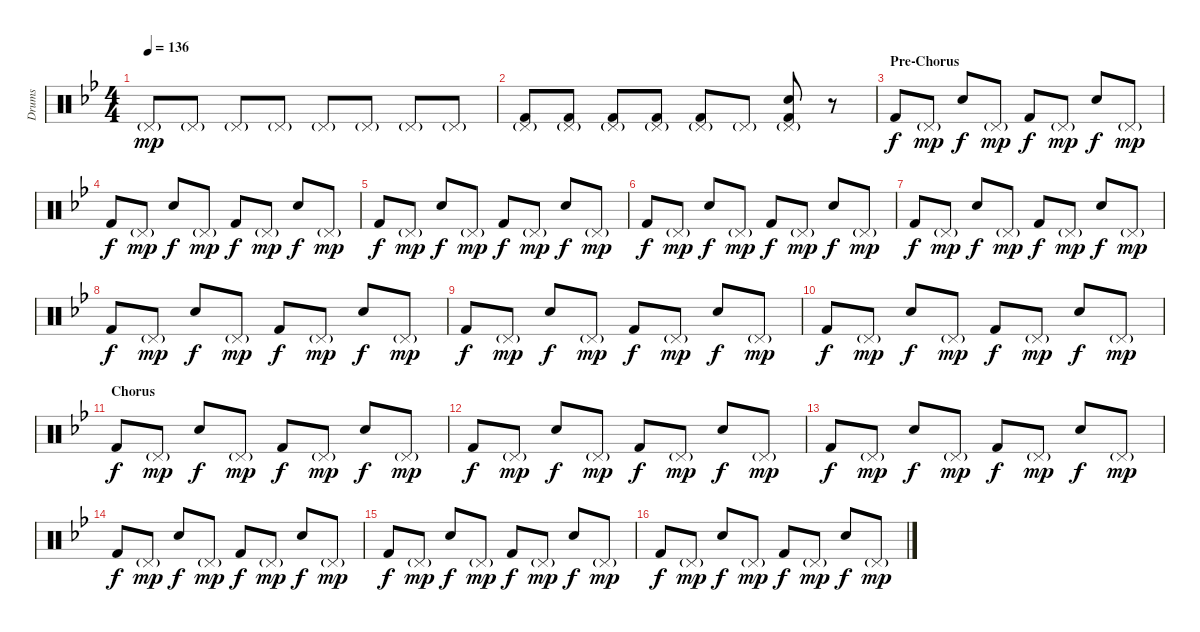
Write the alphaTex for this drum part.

\track ("Drums" "Drums") {instrument percussion}
\staff {score}
\articulation defaults
\ts (4 4)
\tempo 136
\clef neutral
\ks gminor "Pedal Hi-Hat (hit)"{g}.8{dy mp} "Pedal Hi-Hat (hit)"{g}.8 "Pedal Hi-Hat (hit)"{g}.8 "Pedal Hi-Hat (hit)"{g}.8 "Pedal Hi-Hat (hit)"{g}.8 "Pedal Hi-Hat (hit)"{g}.8 "Pedal Hi-Hat (hit)"{g}.8 "Pedal Hi-Hat (hit)"{g}.8
|
("Pedal Hi-Hat (hit)"{g} "Kick (hit) 2").8 ("Pedal Hi-Hat (hit)"{g} "Kick (hit) 2").8 ("Pedal Hi-Hat (hit)"{g} "Kick (hit) 2").8 ("Pedal Hi-Hat (hit)"{g} "Kick (hit) 2").8 ("Pedal Hi-Hat (hit)"{g} "Kick (hit) 2").8 "Pedal Hi-Hat (hit)"{g}.8 ("Pedal Hi-Hat (hit)"{g} "Snare (hit) 2" "Kick (hit) 2").8 r.8 |
\section ("" "Pre-Chorus")
"Kick (hit) 2".8{dy f} "Pedal Hi-Hat (hit)"{g}.8{dy mp} "Hand Clap (hit)".8{dy f} "Pedal Hi-Hat (hit)"{g}.8{dy mp} "Kick (hit) 2".8{dy f} "Pedal Hi-Hat (hit)"{g}.8{dy mp} "Hand Clap (hit)".8{dy f} "Pedal Hi-Hat (hit)"{g}.8{dy mp} |
"Kick (hit) 2".8{dy f} "Pedal Hi-Hat (hit)"{g}.8{dy mp} "Hand Clap (hit)".8{dy f} "Pedal Hi-Hat (hit)"{g}.8{dy mp} "Kick (hit) 2".8{dy f} "Pedal Hi-Hat (hit)"{g}.8{dy mp} "Hand Clap (hit)".8{dy f} "Pedal Hi-Hat (hit)"{g}.8{dy mp} |
"Kick (hit) 2".8{dy f} "Pedal Hi-Hat (hit)"{g}.8{dy mp} "Hand Clap (hit)".8{dy f} "Pedal Hi-Hat (hit)"{g}.8{dy mp} "Kick (hit) 2".8{dy f} "Pedal Hi-Hat (hit)"{g}.8{dy mp} "Hand Clap (hit)".8{dy f} "Pedal Hi-Hat (hit)"{g}.8{dy mp} |
"Kick (hit) 2".8{dy f} "Pedal Hi-Hat (hit)"{g}.8{dy mp} "Hand Clap (hit)".8{dy f} "Pedal Hi-Hat (hit)"{g}.8{dy mp} "Kick (hit) 2".8{dy f} "Pedal Hi-Hat (hit)"{g}.8{dy mp} "Hand Clap (hit)".8{dy f} "Pedal Hi-Hat (hit)"{g}.8{dy mp} |
"Kick (hit) 2".8{dy f} "Pedal Hi-Hat (hit)"{g}.8{dy mp} "Hand Clap (hit)".8{dy f} "Pedal Hi-Hat (hit)"{g}.8{dy mp} "Kick (hit) 2".8{dy f} "Pedal Hi-Hat (hit)"{g}.8{dy mp} "Hand Clap (hit)".8{dy f} "Pedal Hi-Hat (hit)"{g}.8{dy mp} |
"Kick (hit) 2".8{dy f} "Pedal Hi-Hat (hit)"{g}.8{dy mp} "Hand Clap (hit)".8{dy f} "Pedal Hi-Hat (hit)"{g}.8{dy mp} "Kick (hit) 2".8{dy f} "Pedal Hi-Hat (hit)"{g}.8{dy mp} "Hand Clap (hit)".8{dy f} "Pedal Hi-Hat (hit)"{g}.8{dy mp} |
"Kick (hit) 2".8{dy f} "Pedal Hi-Hat (hit)"{g}.8{dy mp} "Hand Clap (hit)".8{dy f} "Pedal Hi-Hat (hit)"{g}.8{dy mp} "Kick (hit) 2".8{dy f} "Pedal Hi-Hat (hit)"{g}.8{dy mp} "Hand Clap (hit)".8{dy f} "Pedal Hi-Hat (hit)"{g}.8{dy mp} |
"Kick (hit) 2".8{dy f} "Pedal Hi-Hat (hit)"{g}.8{dy mp} "Hand Clap (hit)".8{dy f} "Pedal Hi-Hat (hit)"{g}.8{dy mp} "Kick (hit) 2".8{dy f} "Pedal Hi-Hat (hit)"{g}.8{dy mp} "Hand Clap (hit)".8{dy f} "Pedal Hi-Hat (hit)"{g}.8{dy mp} |
\section ("" "Chorus")
"Kick (hit) 2".8{dy f} "Pedal Hi-Hat (hit)"{g}.8{dy mp} "Hand Clap (hit)".8{dy f} "Pedal Hi-Hat (hit)"{g}.8{dy mp} "Kick (hit) 2".8{dy f} "Pedal Hi-Hat (hit)"{g}.8{dy mp} "Hand Clap (hit)".8{dy f} "Pedal Hi-Hat (hit)"{g}.8{dy mp} |
"Kick (hit) 2".8{dy f} "Pedal Hi-Hat (hit)"{g}.8{dy mp} "Hand Clap (hit)".8{dy f} "Pedal Hi-Hat (hit)"{g}.8{dy mp} "Kick (hit) 2".8{dy f} "Pedal Hi-Hat (hit)"{g}.8{dy mp} "Hand Clap (hit)".8{dy f} "Pedal Hi-Hat (hit)"{g}.8{dy mp} |
"Kick (hit) 2".8{dy f} "Pedal Hi-Hat (hit)"{g}.8{dy mp} "Hand Clap (hit)".8{dy f} "Pedal Hi-Hat (hit)"{g}.8{dy mp} "Kick (hit) 2".8{dy f} "Pedal Hi-Hat (hit)"{g}.8{dy mp} "Hand Clap (hit)".8{dy f} "Pedal Hi-Hat (hit)"{g}.8{dy mp} |
"Kick (hit) 2".8{dy f} "Pedal Hi-Hat (hit)"{g}.8{dy mp} "Hand Clap (hit)".8{dy f} "Pedal Hi-Hat (hit)"{g}.8{dy mp} "Kick (hit) 2".8{dy f} "Pedal Hi-Hat (hit)"{g}.8{dy mp} "Hand Clap (hit)".8{dy f} "Pedal Hi-Hat (hit)"{g}.8{dy mp} |
"Kick (hit) 2".8{dy f} "Pedal Hi-Hat (hit)"{g}.8{dy mp} "Hand Clap (hit)".8{dy f} "Pedal Hi-Hat (hit)"{g}.8{dy mp} "Kick (hit) 2".8{dy f} "Pedal Hi-Hat (hit)"{g}.8{dy mp} "Hand Clap (hit)".8{dy f} "Pedal Hi-Hat (hit)"{g}.8{dy mp} |
"Kick (hit) 2".8{dy f} "Pedal Hi-Hat (hit)"{g}.8{dy mp} "Hand Clap (hit)".8{dy f} "Pedal Hi-Hat (hit)"{g}.8{dy mp} "Kick (hit) 2".8{dy f} "Pedal Hi-Hat (hit)"{g}.8{dy mp} "Hand Clap (hit)".8{dy f} "Pedal Hi-Hat (hit)"{g}.8{dy mp}
